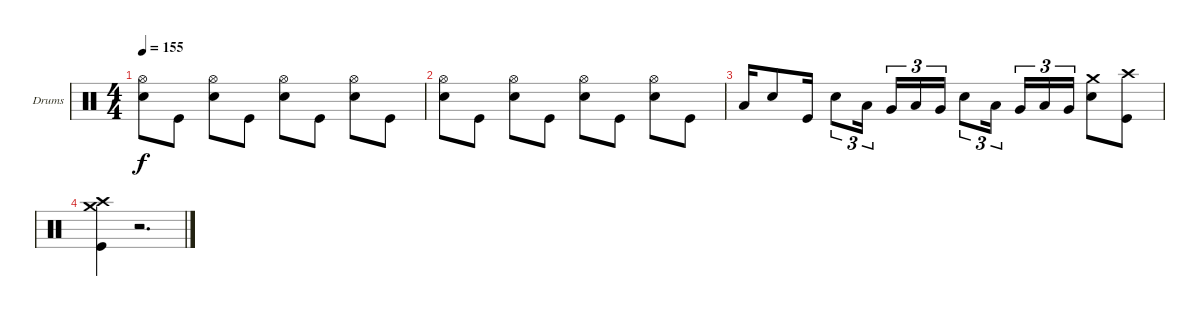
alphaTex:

\defaultSystemsLayout 4
\bracketExtendMode groupsimilarinstruments
\firstSystemTrackNameOrientation horizontal
\otherSystemsTrackNameOrientation horizontal
\track ("Drumkit" "Drums") {instrument percussion}
\staff {score}
\articulation defaults
\ts (4 4)
\tempo 155
\clef neutral
\scale
0.333333
\ks c
("Hi-Hat (open)" "Snare (hit) 2").8{dy f} "Kick (hit)".8 ("Hi-Hat (open)" "Snare (hit) 2").8 "Kick (hit)".8 ("Hi-Hat (open)" "Snare (hit) 2").8 "Kick (hit)".8 ("Hi-Hat (open)" "Snare (hit) 2").8 "Kick (hit)".8 |
\scale
0.333333 ("Hi-Hat (open)" "Snare (hit) 2").8 "Kick (hit)".8 ("Hi-Hat (open)" "Snare (hit) 2").8 "Kick (hit)".8 ("Hi-Hat (open)" "Snare (hit) 2").8 "Kick (hit)".8 ("Hi-Hat (open)" "Snare (hit) 2").8 "Kick (hit)".8 |
"Low Tom (hit)".16 "Snare (hit) 2".8 "Kick (hit)".16 "Snare (hit) 2".8{tu (3 2)} "Low Tom (hit)".16{tu (3 2)} "Very Low Tom (hit)".16{tu (3 2)} "Low Tom (hit)".16{tu (3 2)} "Very Low Tom (hit)".16{tu (3 2)} "Snare (hit) 2".8{tu (3 2)} "Low Tom (hit)".16{tu (3 2)} "Very Low Tom (hit)".16{tu (3 2)} "Low Tom (hit)".16{tu (3 2)} "Very Low Tom (hit)".16{tu (3 2)} ("Crash medium (hit)" "Snare (hit) 2").8 ("Crash high (hit)" "Kick (hit)").8 |
("Crash high (hit)" "Crash medium (hit)" "Kick (hit)").4 r.2{d}
